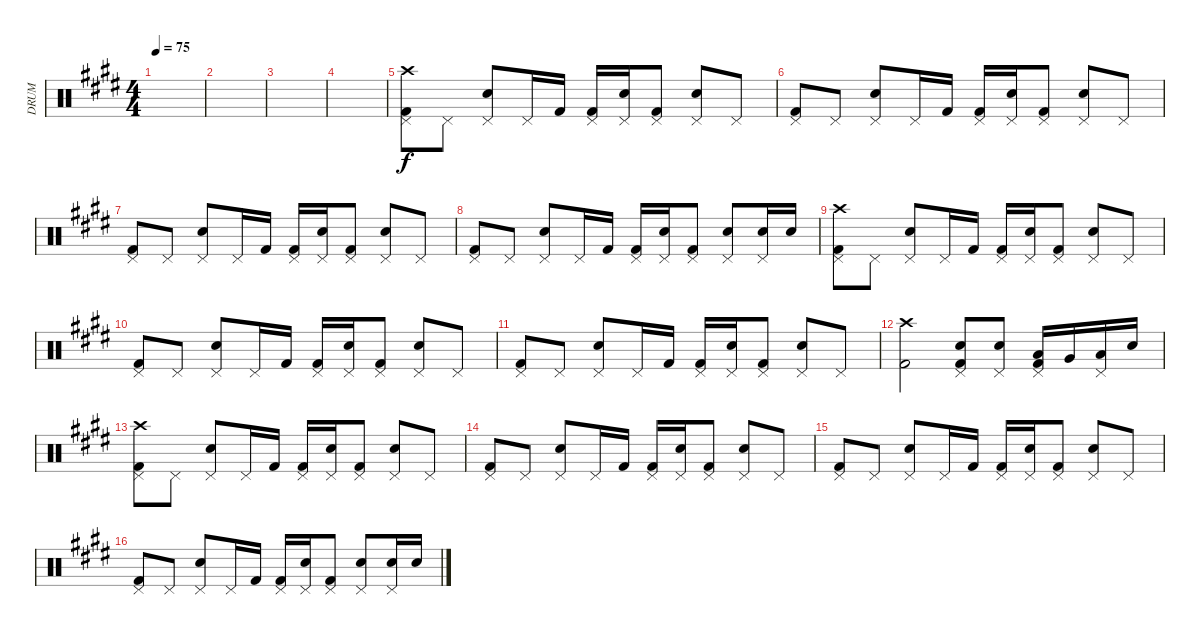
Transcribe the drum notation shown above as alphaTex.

\track ("DRUM" "DRUM") {instrument percussion}
\staff {score}
\articulation defaults
\ts (4 4)
\tempo 75
\clef neutral
\ks e
|
|
|
|
("Crash high (hit)" "Pedal Hi-Hat (hit)" "Kick (hit) 2").8 "Pedal Hi-Hat (hit)".8 ("Pedal Hi-Hat (hit)" "Electric Snare (hit)").8 "Pedal Hi-Hat (hit)".16 "Kick (hit) 2".16 ("Pedal Hi-Hat (hit)" "Kick (hit) 2").16 ("Pedal Hi-Hat (hit)" "Electric Snare (hit)").16 ("Pedal Hi-Hat (hit)" "Kick (hit) 2").8 ("Pedal Hi-Hat (hit)" "Electric Snare (hit)").8 "Pedal Hi-Hat (hit)".8 |
("Pedal Hi-Hat (hit)" "Kick (hit) 2").8 "Pedal Hi-Hat (hit)".8 ("Pedal Hi-Hat (hit)" "Electric Snare (hit)").8 "Pedal Hi-Hat (hit)".16 "Kick (hit) 2".16 ("Pedal Hi-Hat (hit)" "Kick (hit) 2").16 ("Pedal Hi-Hat (hit)" "Electric Snare (hit)").16 ("Pedal Hi-Hat (hit)" "Kick (hit) 2").8 ("Pedal Hi-Hat (hit)" "Electric Snare (hit)").8 "Pedal Hi-Hat (hit)".8 |
("Pedal Hi-Hat (hit)" "Kick (hit) 2").8 "Pedal Hi-Hat (hit)".8 ("Pedal Hi-Hat (hit)" "Electric Snare (hit)").8 "Pedal Hi-Hat (hit)".16 "Kick (hit) 2".16 ("Pedal Hi-Hat (hit)" "Kick (hit) 2").16 ("Pedal Hi-Hat (hit)" "Electric Snare (hit)").16 ("Pedal Hi-Hat (hit)" "Kick (hit) 2").8 ("Pedal Hi-Hat (hit)" "Electric Snare (hit)").8 "Pedal Hi-Hat (hit)".8 |
("Pedal Hi-Hat (hit)" "Kick (hit) 2").8 "Pedal Hi-Hat (hit)".8 ("Pedal Hi-Hat (hit)" "Electric Snare (hit)").8 "Pedal Hi-Hat (hit)".16 "Kick (hit) 2".16 ("Pedal Hi-Hat (hit)" "Kick (hit) 2").16 ("Pedal Hi-Hat (hit)" "Electric Snare (hit)").16 ("Pedal Hi-Hat (hit)" "Kick (hit) 2").8 ("Pedal Hi-Hat (hit)" "Electric Snare (hit)").8 ("Pedal Hi-Hat (hit)" "Electric Snare (hit)").16 "Electric Snare (hit)".16 |
("Crash high (hit)" "Pedal Hi-Hat (hit)" "Kick (hit) 2").8 "Pedal Hi-Hat (hit)".8 ("Pedal Hi-Hat (hit)" "Electric Snare (hit)").8 "Pedal Hi-Hat (hit)".16 "Kick (hit) 2".16 ("Pedal Hi-Hat (hit)" "Kick (hit) 2").16 ("Pedal Hi-Hat (hit)" "Electric Snare (hit)").16 ("Pedal Hi-Hat (hit)" "Kick (hit) 2").8 ("Pedal Hi-Hat (hit)" "Electric Snare (hit)").8 "Pedal Hi-Hat (hit)".8 |
("Pedal Hi-Hat (hit)" "Kick (hit) 2").8 "Pedal Hi-Hat (hit)".8 ("Pedal Hi-Hat (hit)" "Electric Snare (hit)").8 "Pedal Hi-Hat (hit)".16 "Kick (hit) 2".16 ("Pedal Hi-Hat (hit)" "Kick (hit) 2").16 ("Pedal Hi-Hat (hit)" "Electric Snare (hit)").16 ("Pedal Hi-Hat (hit)" "Kick (hit) 2").8 ("Pedal Hi-Hat (hit)" "Electric Snare (hit)").8 "Pedal Hi-Hat (hit)".8 |
("Pedal Hi-Hat (hit)" "Kick (hit) 2").8 "Pedal Hi-Hat (hit)".8 ("Pedal Hi-Hat (hit)" "Electric Snare (hit)").8 "Pedal Hi-Hat (hit)".16 "Kick (hit) 2".16 ("Pedal Hi-Hat (hit)" "Kick (hit) 2").16 ("Pedal Hi-Hat (hit)" "Electric Snare (hit)").16 ("Pedal Hi-Hat (hit)" "Kick (hit) 2").8 ("Pedal Hi-Hat (hit)" "Electric Snare (hit)").8 "Pedal Hi-Hat (hit)".8 |
("Crash high (hit)" "Kick (hit) 2").2 ("Pedal Hi-Hat (hit)" "Electric Snare (hit)" "Kick (hit) 2").8 ("Pedal Hi-Hat (hit)" "Electric Snare (hit)").8 ("Pedal Hi-Hat (hit)" "Low Tom (hit)" "Kick (hit) 2").16 "Very Low Tom (hit)".16 ("Pedal Hi-Hat (hit)" "Low Floor Tom (hit)").16 "Electric Snare (hit)".16 |
("Crash high (hit)" "Pedal Hi-Hat (hit)" "Kick (hit) 2").8 "Pedal Hi-Hat (hit)".8 ("Pedal Hi-Hat (hit)" "Electric Snare (hit)").8 "Pedal Hi-Hat (hit)".16 "Kick (hit) 2".16 ("Pedal Hi-Hat (hit)" "Kick (hit) 2").16 ("Pedal Hi-Hat (hit)" "Electric Snare (hit)").16 ("Pedal Hi-Hat (hit)" "Kick (hit) 2").8 ("Pedal Hi-Hat (hit)" "Electric Snare (hit)").8 "Pedal Hi-Hat (hit)".8 |
("Pedal Hi-Hat (hit)" "Kick (hit) 2").8 "Pedal Hi-Hat (hit)".8 ("Pedal Hi-Hat (hit)" "Electric Snare (hit)").8 "Pedal Hi-Hat (hit)".16 "Kick (hit) 2".16 ("Pedal Hi-Hat (hit)" "Kick (hit) 2").16 ("Pedal Hi-Hat (hit)" "Electric Snare (hit)").16 ("Pedal Hi-Hat (hit)" "Kick (hit) 2").8 ("Pedal Hi-Hat (hit)" "Electric Snare (hit)").8 "Pedal Hi-Hat (hit)".8 |
("Pedal Hi-Hat (hit)" "Kick (hit) 2").8 "Pedal Hi-Hat (hit)".8 ("Pedal Hi-Hat (hit)" "Electric Snare (hit)").8 "Pedal Hi-Hat (hit)".16 "Kick (hit) 2".16 ("Pedal Hi-Hat (hit)" "Kick (hit) 2").16 ("Pedal Hi-Hat (hit)" "Electric Snare (hit)").16 ("Pedal Hi-Hat (hit)" "Kick (hit) 2").8 ("Pedal Hi-Hat (hit)" "Electric Snare (hit)").8 "Pedal Hi-Hat (hit)".8 |
("Pedal Hi-Hat (hit)" "Kick (hit) 2").8 "Pedal Hi-Hat (hit)".8 ("Pedal Hi-Hat (hit)" "Electric Snare (hit)").8 "Pedal Hi-Hat (hit)".16 "Kick (hit) 2".16 ("Pedal Hi-Hat (hit)" "Kick (hit) 2").16 ("Pedal Hi-Hat (hit)" "Electric Snare (hit)").16 ("Pedal Hi-Hat (hit)" "Kick (hit) 2").8 ("Pedal Hi-Hat (hit)" "Electric Snare (hit)").8 ("Pedal Hi-Hat (hit)" "Electric Snare (hit)").16 "Electric Snare (hit)".16
